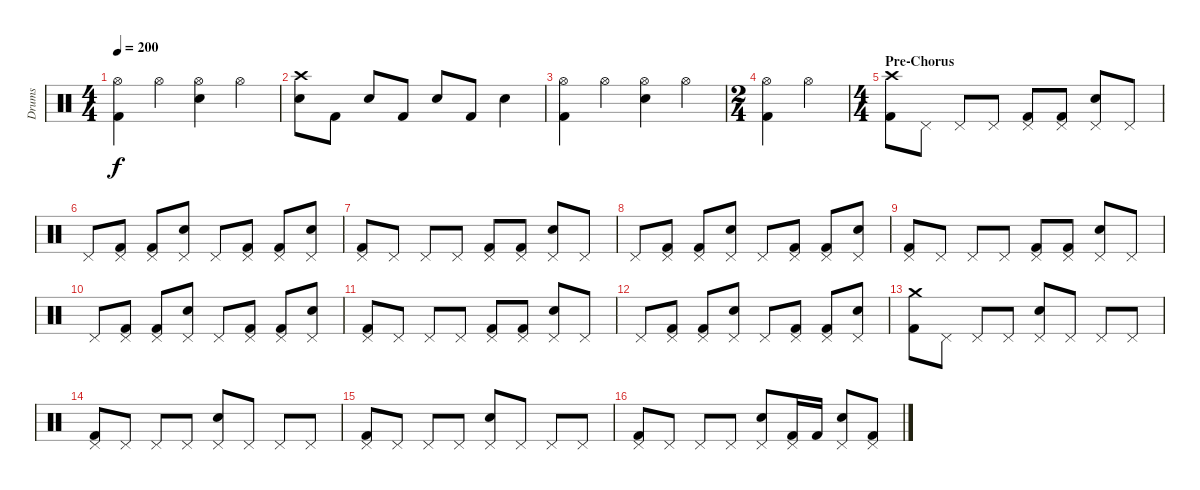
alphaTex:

\track ("Drums" "Drums") {instrument percussion}
\staff {score}
\articulation defaults
\ts (4 4)
\tempo 200
\clef neutral
\ks c
("Hi-Hat (open)" "Kick (hit) 2").4{dy f} "Hi-Hat (open)".4 ("Hi-Hat (open)" "Snare (hit) 2").4 "Hi-Hat (open)".4 |
("Crash high (hit)" "Snare (hit) 2").8 "Kick (hit) 2".8 "Snare (hit) 2".8 "Kick (hit) 2".8 "Snare (hit) 2".8 "Kick (hit) 2".8 "Snare (hit) 2".4 |
("Hi-Hat (open)" "Kick (hit) 2").4 "Hi-Hat (open)".4 ("Hi-Hat (open)" "Snare (hit) 2").4 "Hi-Hat (open)".4 |
\ts (2 4)
("Hi-Hat (open)" "Kick (hit) 2").4 "Hi-Hat (open)".4 |
\ts (4 4)
\section ("" "Pre-Chorus")
("Crash high (hit)" "Kick (hit) 2").8 "Pedal Hi-Hat (hit)".8 "Pedal Hi-Hat (hit)".8 "Pedal Hi-Hat (hit)".8 ("Pedal Hi-Hat (hit)" "Kick (hit) 2").8 ("Pedal Hi-Hat (hit)" "Kick (hit) 2").8 ("Pedal Hi-Hat (hit)" "Snare (hit) 2").8 "Pedal Hi-Hat (hit)".8 |
"Pedal Hi-Hat (hit)".8 ("Pedal Hi-Hat (hit)" "Kick (hit) 2").8 ("Pedal Hi-Hat (hit)" "Kick (hit) 2").8 ("Pedal Hi-Hat (hit)" "Snare (hit) 2").8 "Pedal Hi-Hat (hit)".8 ("Pedal Hi-Hat (hit)" "Kick (hit) 2").8 ("Pedal Hi-Hat (hit)" "Kick (hit) 2").8 ("Pedal Hi-Hat (hit)" "Snare (hit) 2").8 |
("Pedal Hi-Hat (hit)" "Kick (hit) 2").8 "Pedal Hi-Hat (hit)".8 "Pedal Hi-Hat (hit)".8 "Pedal Hi-Hat (hit)".8 ("Pedal Hi-Hat (hit)" "Kick (hit) 2").8 ("Pedal Hi-Hat (hit)" "Kick (hit) 2").8 ("Pedal Hi-Hat (hit)" "Snare (hit) 2").8 "Pedal Hi-Hat (hit)".8 |
"Pedal Hi-Hat (hit)".8 ("Pedal Hi-Hat (hit)" "Kick (hit) 2").8 ("Pedal Hi-Hat (hit)" "Kick (hit) 2").8 ("Pedal Hi-Hat (hit)" "Snare (hit) 2").8 "Pedal Hi-Hat (hit)".8 ("Pedal Hi-Hat (hit)" "Kick (hit) 2").8 ("Pedal Hi-Hat (hit)" "Kick (hit) 2").8 ("Pedal Hi-Hat (hit)" "Snare (hit) 2").8 |
("Pedal Hi-Hat (hit)" "Kick (hit) 2").8 "Pedal Hi-Hat (hit)".8 "Pedal Hi-Hat (hit)".8 "Pedal Hi-Hat (hit)".8 ("Pedal Hi-Hat (hit)" "Kick (hit) 2").8 ("Pedal Hi-Hat (hit)" "Kick (hit) 2").8 ("Pedal Hi-Hat (hit)" "Snare (hit) 2").8 "Pedal Hi-Hat (hit)".8 |
"Pedal Hi-Hat (hit)".8 ("Pedal Hi-Hat (hit)" "Kick (hit) 2").8 ("Pedal Hi-Hat (hit)" "Kick (hit) 2").8 ("Pedal Hi-Hat (hit)" "Snare (hit) 2").8 "Pedal Hi-Hat (hit)".8 ("Pedal Hi-Hat (hit)" "Kick (hit) 2").8 ("Pedal Hi-Hat (hit)" "Kick (hit) 2").8 ("Pedal Hi-Hat (hit)" "Snare (hit) 2").8 |
("Pedal Hi-Hat (hit)" "Kick (hit) 2").8 "Pedal Hi-Hat (hit)".8 "Pedal Hi-Hat (hit)".8 "Pedal Hi-Hat (hit)".8 ("Pedal Hi-Hat (hit)" "Kick (hit) 2").8 ("Pedal Hi-Hat (hit)" "Kick (hit) 2").8 ("Pedal Hi-Hat (hit)" "Snare (hit) 2").8 "Pedal Hi-Hat (hit)".8 |
"Pedal Hi-Hat (hit)".8 ("Pedal Hi-Hat (hit)" "Kick (hit) 2").8 ("Pedal Hi-Hat (hit)" "Kick (hit) 2").8 ("Pedal Hi-Hat (hit)" "Snare (hit) 2").8 "Pedal Hi-Hat (hit)".8 ("Pedal Hi-Hat (hit)" "Kick (hit) 2").8 ("Pedal Hi-Hat (hit)" "Kick (hit) 2").8 ("Pedal Hi-Hat (hit)" "Snare (hit) 2").8 |
("Crash medium (hit)" "Kick (hit) 2").8 "Pedal Hi-Hat (hit)".8 "Pedal Hi-Hat (hit)".8 "Pedal Hi-Hat (hit)".8 ("Pedal Hi-Hat (hit)" "Snare (hit) 2").8 "Pedal Hi-Hat (hit)".8 "Pedal Hi-Hat (hit)".8 "Pedal Hi-Hat (hit)".8 |
("Pedal Hi-Hat (hit)" "Kick (hit) 2").8 "Pedal Hi-Hat (hit)".8 "Pedal Hi-Hat (hit)".8 "Pedal Hi-Hat (hit)".8 ("Pedal Hi-Hat (hit)" "Snare (hit) 2").8 "Pedal Hi-Hat (hit)".8 "Pedal Hi-Hat (hit)".8 "Pedal Hi-Hat (hit)".8 |
("Pedal Hi-Hat (hit)" "Kick (hit) 2").8 "Pedal Hi-Hat (hit)".8 "Pedal Hi-Hat (hit)".8 "Pedal Hi-Hat (hit)".8 ("Pedal Hi-Hat (hit)" "Snare (hit) 2").8 "Pedal Hi-Hat (hit)".8 "Pedal Hi-Hat (hit)".8 "Pedal Hi-Hat (hit)".8 |
("Pedal Hi-Hat (hit)" "Kick (hit) 2").8 "Pedal Hi-Hat (hit)".8 "Pedal Hi-Hat (hit)".8 "Pedal Hi-Hat (hit)".8 ("Pedal Hi-Hat (hit)" "Snare (hit) 2").8 ("Pedal Hi-Hat (hit)" "Kick (hit) 2").16 "Kick (hit) 2".16 ("Pedal Hi-Hat (hit)" "Snare (hit) 2").8 ("Pedal Hi-Hat (hit)" "Kick (hit) 2").8
